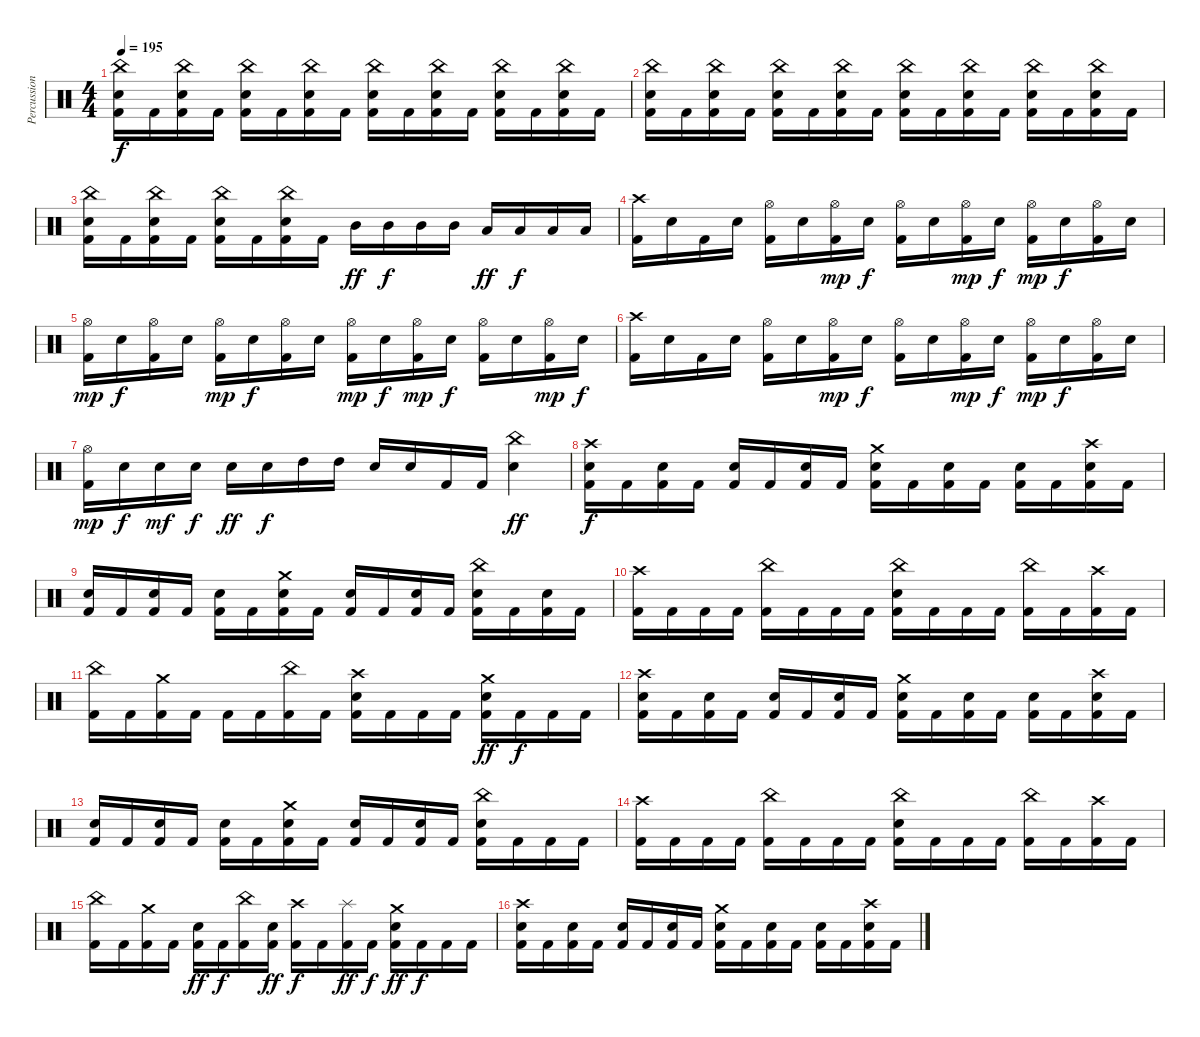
\track ("Percussion" "Percussion") {instrument percussion}
\staff {score}
\articulation defaults
\ts (4 4)
\tempo 195
\clef neutral
\ks c
("China (hit)" "Snare (hit) 2" "Kick (hit) 2").16{dy f} "Kick (hit) 2".16 ("China (hit)" "Snare (hit) 2" "Kick (hit) 2").16 "Kick (hit) 2".16 ("China (hit)" "Snare (hit) 2" "Kick (hit) 2").16 "Kick (hit) 2".16 ("China (hit)" "Snare (hit) 2" "Kick (hit) 2").16 "Kick (hit) 2".16 ("China (hit)" "Snare (hit) 2" "Kick (hit) 2").16 "Kick (hit) 2".16 ("China (hit)" "Snare (hit) 2" "Kick (hit) 2").16 "Kick (hit) 2".16 ("China (hit)" "Snare (hit) 2" "Kick (hit) 2").16 "Kick (hit) 2".16 ("China (hit)" "Snare (hit) 2" "Kick (hit) 2").16 "Kick (hit) 2".16 |
("China (hit)" "Snare (hit) 2" "Kick (hit) 2").16 "Kick (hit) 2".16 ("China (hit)" "Snare (hit) 2" "Kick (hit) 2").16 "Kick (hit) 2".16 ("China (hit)" "Snare (hit) 2" "Kick (hit) 2").16 "Kick (hit) 2".16 ("China (hit)" "Snare (hit) 2" "Kick (hit) 2").16 "Kick (hit) 2".16 ("China (hit)" "Snare (hit) 2" "Kick (hit) 2").16 "Kick (hit) 2".16 ("China (hit)" "Snare (hit) 2" "Kick (hit) 2").16 "Kick (hit) 2".16 ("China (hit)" "Snare (hit) 2" "Kick (hit) 2").16 "Kick (hit) 2".16 ("China (hit)" "Snare (hit) 2" "Kick (hit) 2").16 "Kick (hit) 2".16 |
("China (hit)" "Snare (hit) 2" "Kick (hit) 2").16 "Kick (hit) 2".16 ("China (hit)" "Snare (hit) 2" "Kick (hit) 2").16 "Kick (hit) 2".16 ("China (hit)" "Snare (hit) 2" "Kick (hit) 2").16 "Kick (hit) 2".16 ("China (hit)" "Snare (hit) 2" "Kick (hit) 2").16 "Kick (hit) 2".16 "Mid Tom (hit)".16{dy ff} "Mid Tom (hit)".16{dy f} "Mid Tom (hit)".16 "Mid Tom (hit)".16 "Low Tom (hit)".16{dy ff} "Low Tom (hit)".16{dy f} "Low Tom (hit)".16 "Low Tom (hit)".16 |
("Crash high (hit)" "Kick (hit) 2").16 "Snare (hit) 2".16 "Kick (hit) 2".16 "Snare (hit) 2".16 ("Hi-Hat (open)" "Kick (hit) 2").16 "Snare (hit) 2".16 ("Hi-Hat (open)" "Kick (hit) 2").16{dy mp} "Snare (hit) 2".16{dy f} ("Hi-Hat (open)" "Kick (hit) 2").16 "Snare (hit) 2".16 ("Hi-Hat (open)" "Kick (hit) 2").16{dy mp} "Snare (hit) 2".16{dy f} ("Hi-Hat (open)" "Kick (hit) 2").16{dy mp} "Snare (hit) 2".16{dy f} ("Hi-Hat (open)" "Kick (hit) 2").16 "Snare (hit) 2".16 |
("Hi-Hat (open)" "Kick (hit) 2").16{dy mp} "Snare (hit) 2".16{dy f} ("Hi-Hat (open)" "Kick (hit) 2").16 "Snare (hit) 2".16 ("Hi-Hat (open)" "Kick (hit) 2").16{dy mp} "Snare (hit) 2".16{dy f} ("Hi-Hat (open)" "Kick (hit) 2").16 "Snare (hit) 2".16 ("Hi-Hat (open)" "Kick (hit) 2").16{dy mp} "Snare (hit) 2".16{dy f} ("Hi-Hat (open)" "Kick (hit) 2").16{dy mp} "Snare (hit) 2".16{dy f} ("Hi-Hat (open)" "Kick (hit) 2").16 "Snare (hit) 2".16 ("Hi-Hat (open)" "Kick (hit) 2").16{dy mp} "Snare (hit) 2".16{dy f} |
("Crash high (hit)" "Kick (hit) 2").16 "Snare (hit) 2".16 "Kick (hit) 2".16 "Snare (hit) 2".16 ("Hi-Hat (open)" "Kick (hit) 2").16 "Snare (hit) 2".16 ("Hi-Hat (open)" "Kick (hit) 2").16{dy mp} "Snare (hit) 2".16{dy f} ("Hi-Hat (open)" "Kick (hit) 2").16 "Snare (hit) 2".16 ("Hi-Hat (open)" "Kick (hit) 2").16{dy mp} "Snare (hit) 2".16{dy f} ("Hi-Hat (open)" "Kick (hit) 2").16{dy mp} "Snare (hit) 2".16{dy f} ("Hi-Hat (open)" "Kick (hit) 2").16 "Snare (hit) 2".16 |
("Hi-Hat (open)" "Kick (hit) 2").16{dy mp} "Snare (hit) 2".16{dy f} "Snare (hit) 2".16{dy mf} "Snare (hit) 2".16{dy f} "Snare (hit) 2".16{dy ff} "Snare (hit) 2".16{dy f} "High Tom (hit)".16 "High Tom (hit)".16 "Snare (hit) 2".16 "Snare (hit) 2".16 "Kick (hit) 2".16 "Kick (hit) 2".16 ("China (hit)" "Snare (hit) 2").4{dy ff} |
("Crash high (hit)" "Snare (hit) 2" "Kick (hit) 2").16{dy f} "Kick (hit) 2".16 ("Snare (hit) 2" "Kick (hit) 2").16 "Kick (hit) 2".16 ("Snare (hit) 2" "Kick (hit) 2").16 "Kick (hit) 2".16 ("Snare (hit) 2" "Kick (hit) 2").16 "Kick (hit) 2".16 ("Crash medium (hit)" "Snare (hit) 2" "Kick (hit) 2").16 "Kick (hit) 2".16 ("Snare (hit) 2" "Kick (hit) 2").16 "Kick (hit) 2".16 ("Snare (hit) 2" "Kick (hit) 2").16 "Kick (hit) 2".16 ("Crash high (hit)" "Snare (hit) 2" "Kick (hit) 2").16 "Kick (hit) 2".16 |
("Snare (hit) 2" "Kick (hit) 2").16 "Kick (hit) 2".16 ("Snare (hit) 2" "Kick (hit) 2").16 "Kick (hit) 2".16 ("Snare (hit) 2" "Kick (hit) 2").16 "Kick (hit) 2".16 ("Crash medium (hit)" "Snare (hit) 2" "Kick (hit) 2").16 "Kick (hit) 2".16 ("Snare (hit) 2" "Kick (hit) 2").16 "Kick (hit) 2".16 ("Snare (hit) 2" "Kick (hit) 2").16 "Kick (hit) 2".16 ("China (hit)" "Snare (hit) 2" "Kick (hit) 2").16 "Kick (hit) 2".16 ("Snare (hit) 2" "Kick (hit) 2").16 "Kick (hit) 2".16 |
("Crash high (hit)" "Kick (hit) 2").16 "Kick (hit) 2".16 "Kick (hit) 2".16 "Kick (hit) 2".16 ("China (hit)" "Kick (hit) 2").16 "Kick (hit) 2".16 "Kick (hit) 2".16 "Kick (hit) 2".16 ("China (hit)" "Snare (hit) 2" "Kick (hit) 2").16 "Kick (hit) 2".16 "Kick (hit) 2".16 "Kick (hit) 2".16 ("China (hit)" "Kick (hit) 2").16 "Kick (hit) 2".16 ("Crash high (hit)" "Kick (hit) 2").16 "Kick (hit) 2".16 |
("China (hit)" "Kick (hit) 2").16 "Kick (hit) 2".16 ("Crash medium (hit)" "Kick (hit) 2").16 "Kick (hit) 2".16 "Kick (hit) 2".16 "Kick (hit) 2".16 ("China (hit)" "Kick (hit) 2").16 "Kick (hit) 2".16 ("Crash high (hit)" "Snare (hit) 2" "Kick (hit) 2").16 "Kick (hit) 2".16 "Kick (hit) 2".16 "Kick (hit) 2".16 ("Crash medium (hit)" "Snare (hit) 2" "Kick (hit) 2").16{dy ff} "Kick (hit) 2".16{dy f} "Kick (hit) 2".16 "Kick (hit) 2".16 |
("Crash high (hit)" "Snare (hit) 2" "Kick (hit) 2").16 "Kick (hit) 2".16 ("Snare (hit) 2" "Kick (hit) 2").16 "Kick (hit) 2".16 ("Snare (hit) 2" "Kick (hit) 2").16 "Kick (hit) 2".16 ("Snare (hit) 2" "Kick (hit) 2").16 "Kick (hit) 2".16 ("Crash medium (hit)" "Snare (hit) 2" "Kick (hit) 2").16 "Kick (hit) 2".16 ("Snare (hit) 2" "Kick (hit) 2").16 "Kick (hit) 2".16 ("Snare (hit) 2" "Kick (hit) 2").16 "Kick (hit) 2".16 ("Crash high (hit)" "Snare (hit) 2" "Kick (hit) 2").16 "Kick (hit) 2".16 |
("Snare (hit) 2" "Kick (hit) 2").16 "Kick (hit) 2".16 ("Snare (hit) 2" "Kick (hit) 2").16 "Kick (hit) 2".16 ("Snare (hit) 2" "Kick (hit) 2").16 "Kick (hit) 2".16 ("Crash medium (hit)" "Snare (hit) 2" "Kick (hit) 2").16 "Kick (hit) 2".16 ("Snare (hit) 2" "Kick (hit) 2").16 "Kick (hit) 2".16 ("Snare (hit) 2" "Kick (hit) 2").16 "Kick (hit) 2".16 ("China (hit)" "Snare (hit) 2" "Kick (hit) 2").16 "Kick (hit) 2".16 "Kick (hit) 2".16 "Kick (hit) 2".16 |
("Crash high (hit)" "Kick (hit) 2").16 "Kick (hit) 2".16 "Kick (hit) 2".16 "Kick (hit) 2".16 ("China (hit)" "Kick (hit) 2").16 "Kick (hit) 2".16 "Kick (hit) 2".16 "Kick (hit) 2".16 ("China (hit)" "Snare (hit) 2" "Kick (hit) 2").16 "Kick (hit) 2".16 "Kick (hit) 2".16 "Kick (hit) 2".16 ("China (hit)" "Kick (hit) 2").16 "Kick (hit) 2".16 ("Crash high (hit)" "Kick (hit) 2").16 "Kick (hit) 2".16 |
("China (hit)" "Kick (hit) 2").16 "Kick (hit) 2".16 ("Crash medium (hit)" "Kick (hit) 2").16 "Kick (hit) 2".16 ("Snare (hit) 2" "Kick (hit) 2").16{dy ff} "Kick (hit) 2".16{dy f} ("China (hit)" "Kick (hit) 2").16 ("Snare (hit) 2" "Kick (hit) 2").16{dy ff} ("Crash high (hit)" "Kick (hit) 2").16{dy f} "Kick (hit) 2".16 ("Splash (hit)" "Kick (hit) 2").16{dy ff} "Kick (hit) 2".16{dy f} ("Crash medium (hit)" "Snare (hit) 2" "Kick (hit) 2").16{dy ff} "Kick (hit) 2".16{dy f} "Kick (hit) 2".16 "Kick (hit) 2".16 |
("Crash high (hit)" "Snare (hit) 2" "Kick (hit) 2").16 "Kick (hit) 2".16 ("Snare (hit) 2" "Kick (hit) 2").16 "Kick (hit) 2".16 ("Snare (hit) 2" "Kick (hit) 2").16 "Kick (hit) 2".16 ("Snare (hit) 2" "Kick (hit) 2").16 "Kick (hit) 2".16 ("Crash medium (hit)" "Snare (hit) 2" "Kick (hit) 2").16 "Kick (hit) 2".16 ("Snare (hit) 2" "Kick (hit) 2").16 "Kick (hit) 2".16 ("Snare (hit) 2" "Kick (hit) 2").16 "Kick (hit) 2".16 ("Crash high (hit)" "Snare (hit) 2" "Kick (hit) 2").16 "Kick (hit) 2".16
